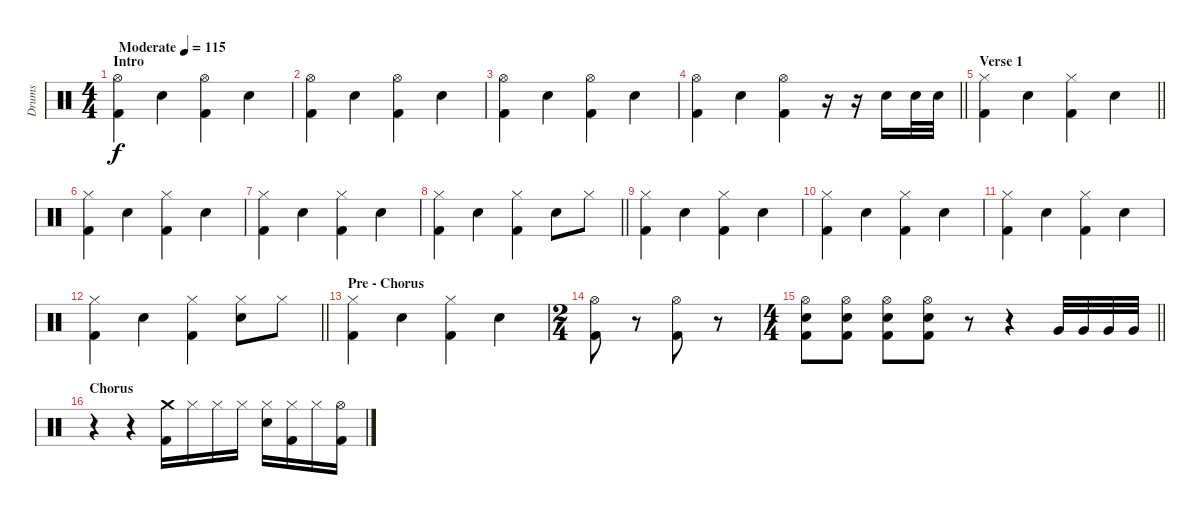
\track ("Drums" "Drums") {instrument percussion}
\staff {score}
\articulation defaults
\ts (4 4)
\section ("" "Intro")
\tempo (115 "Moderate")
\clef neutral
\ks c
("Hi-Hat (open)" "Kick (hit) 2").4{dy f} "Electric Snare (hit)".4 ("Hi-Hat (open)" "Kick (hit) 2").4 "Electric Snare (hit)".4 |
("Hi-Hat (open)" "Kick (hit) 2").4 "Electric Snare (hit)".4 ("Hi-Hat (open)" "Kick (hit) 2").4 "Electric Snare (hit)".4 |
("Hi-Hat (open)" "Kick (hit) 2").4 "Electric Snare (hit)".4 ("Hi-Hat (open)" "Kick (hit) 2").4 "Electric Snare (hit)".4 |
\barLineRight lightlight
("Hi-Hat (open)" "Kick (hit) 2").4 "Electric Snare (hit)".4 ("Hi-Hat (open)" "Kick (hit) 2").4 r.16 r.16 "Electric Snare (hit)".16 "Electric Snare (hit)".32 "Electric Snare (hit)".32 |
\section ("" "Verse 1")
\barLineRight lightlight
("Hi-Hat (closed)" "Kick (hit) 2").4 "Electric Snare (hit)".4 ("Hi-Hat (closed)" "Kick (hit) 2").4 "Electric Snare (hit)".4 |
("Hi-Hat (closed)" "Kick (hit) 2").4 "Electric Snare (hit)".4 ("Hi-Hat (closed)" "Kick (hit) 2").4 "Electric Snare (hit)".4 |
("Hi-Hat (closed)" "Kick (hit) 2").4 "Electric Snare (hit)".4 ("Hi-Hat (closed)" "Kick (hit) 2").4 "Electric Snare (hit)".4 |
\barLineRight lightlight
("Hi-Hat (closed)" "Kick (hit) 2").4 "Electric Snare (hit)".4 ("Hi-Hat (closed)" "Kick (hit) 2").4 "Electric Snare (hit)".8 "Hi-Hat (closed)".8 |
("Hi-Hat (closed)" "Kick (hit) 2").4 "Electric Snare (hit)".4 ("Hi-Hat (closed)" "Kick (hit) 2").4 "Electric Snare (hit)".4 |
("Hi-Hat (closed)" "Kick (hit) 2").4 "Electric Snare (hit)".4 ("Hi-Hat (closed)" "Kick (hit) 2").4 "Electric Snare (hit)".4 |
("Hi-Hat (closed)" "Kick (hit) 2").4 "Electric Snare (hit)".4 ("Hi-Hat (closed)" "Kick (hit) 2").4 "Electric Snare (hit)".4 |
\barLineRight lightlight
("Hi-Hat (closed)" "Kick (hit) 2").4 "Electric Snare (hit)".4 ("Hi-Hat (closed)" "Kick (hit) 2").4 ("Hi-Hat (closed)" "Electric Snare (hit)").8 "Hi-Hat (closed)".8 |
\section ("" "Pre - Chorus")
("Hi-Hat (closed)" "Kick (hit) 2").4 "Electric Snare (hit)".4 ("Hi-Hat (closed)" "Kick (hit) 2").4 "Electric Snare (hit)".4 |
\ts (2 4)
("Hi-Hat (open)" "Kick (hit) 2").8 r.8 ("Hi-Hat (open)" "Kick (hit) 2").8 r.8 |
\ts (4 4)
\barLineRight lightlight
("Hi-Hat (open)" "Electric Snare (hit)" "Kick (hit) 2").8 ("Hi-Hat (open)" "Electric Snare (hit)" "Kick (hit) 2").8 ("Hi-Hat (open)" "Electric Snare (hit)" "Kick (hit) 2").8 ("Hi-Hat (open)" "Electric Snare (hit)" "Kick (hit) 2").8 r.8 r.4 "Very Low Tom (hit)".32 "Very Low Tom (hit)".32 "Very Low Tom (hit)".32 "Very Low Tom (hit)".32 |
\section ("" "Chorus")
r.4 r.4 ("Crash medium (hit)" "Kick (hit) 2").16 "Hi-Hat (closed)".16 "Hi-Hat (closed)".16 "Hi-Hat (closed)".16 ("Hi-Hat (closed)" "Electric Snare (hit)").16 ("Hi-Hat (closed)" "Kick (hit) 2").16 "Hi-Hat (closed)".16 ("Hi-Hat (open)" "Kick (hit) 2").16
